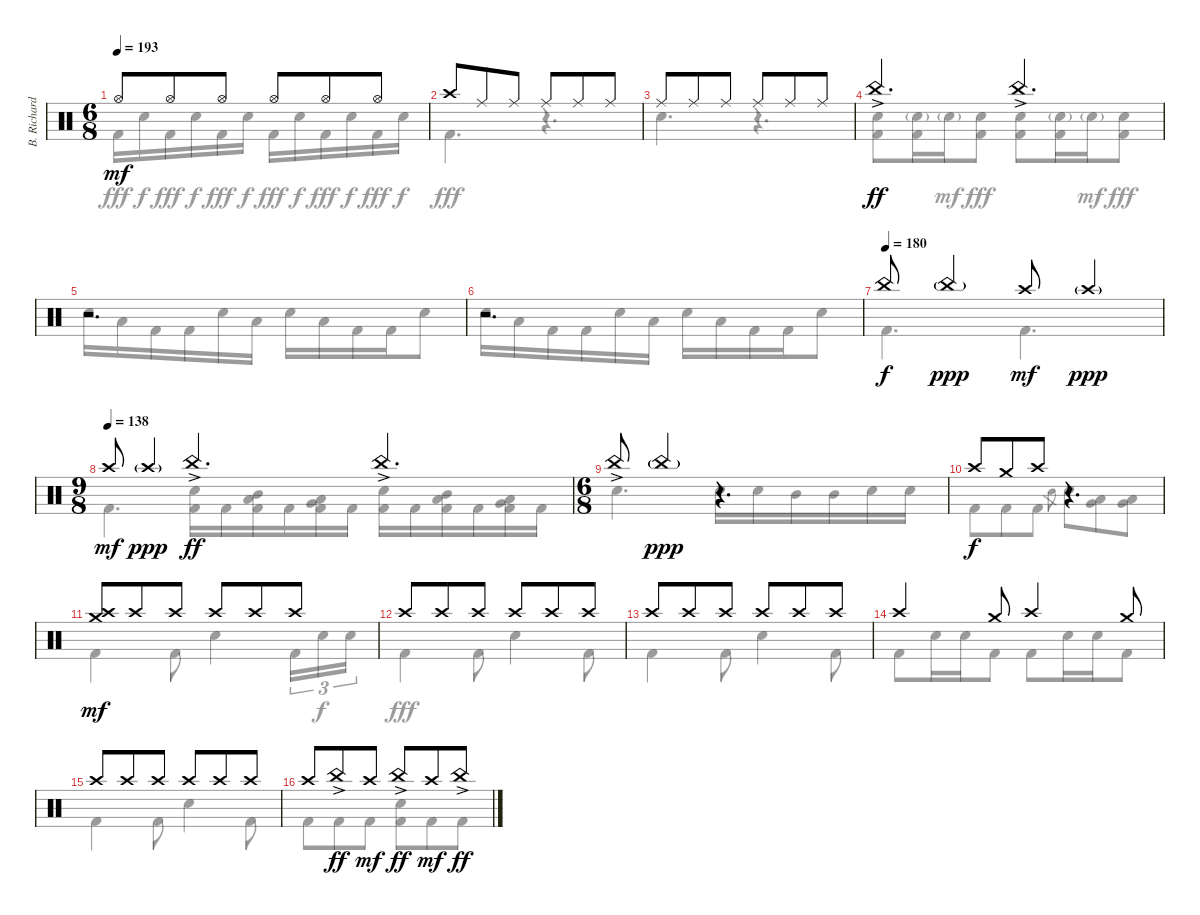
\track ("B. Richardson Drums" "B. Richard") {instrument percussion}
\staff {score}
\articulation defaults
\voice
\ts (6 8)
\tempo 193
\clef neutral
\ks c "Hi-Hat (open)".8{dy mf} "Hi-Hat (open)".8 "Hi-Hat (open)".8 "Hi-Hat (open)".8 "Hi-Hat (open)".8 "Hi-Hat (open)".8
|
"Crash high (hit)".8 "Ride (middle)".8 "Ride (middle)".8 "Ride (middle)".8 "Ride (middle)".8 "Ride (middle)".8 |
"Ride (middle)".8 "Ride (middle)".8 "Ride (middle)".8 "Ride (middle)".8 "Ride (middle)".8 "Ride (middle)".8 |
"China (hit)"{ac}.4{d dy ff} "China (hit)"{ac}.4{d} |
r.2{d} |
r.2{d} |
\tempo (180)
"China (hit)".8{dy f} "China (hit)"{g}.4{dy ppp} "Crash high (hit)".8{dy mf} "Crash high (hit)"{g}.4{dy ppp} |
\ts (9 8)
\tempo (138)
"Crash high (hit)".8{dy mf} "Crash high (hit)"{g}.4{dy ppp} "China (hit)"{ac}.4{d dy ff} "China (hit)"{ac}.4{d} |
\ts (6 8)
"China (hit)"{ac}.8 "China (hit)"{g}.4{dy ppp} r.4{d} |
"Crash high (hit)".8{dy f} "Crash medium (hit)".8 "Crash high (hit)".8 r.4{d} |
("Crash high (hit)" "Crash medium (hit)").8{dy mf} "Crash high (hit)".8 "Crash high (hit)".8 "Crash high (hit)".8 "Crash high (hit)".8 "Crash high (hit)".8 |
"Crash high (hit)".8 "Crash high (hit)".8 "Crash high (hit)".8 "Crash high (hit)".8 "Crash high (hit)".8 "Crash high (hit)".8 |
"Crash high (hit)".8 "Crash high (hit)".8 "Crash high (hit)".8 "Crash high (hit)".8 "Crash high (hit)".8 "Crash high (hit)".8 |
"Crash high (hit)".4 "Crash medium (hit)".8 "Crash high (hit)".4 "Crash medium (hit)".8 |
"Crash high (hit)".8 "Crash high (hit)".8 "Crash high (hit)".8 "Crash high (hit)".8 "Crash high (hit)".8 "Crash high (hit)".8 |
"Crash high (hit)".8 "China (hit)"{ac}.8{dy ff} "Crash high (hit)".8{dy mf} "China (hit)"{ac}.8{dy ff} "Crash high (hit)".8{dy mf} "China (hit)"{ac}.8{dy ff}
\voice
\clef neutral
\ottava regular
\simile none
\ks c "Kick (hit) 2".16{dy fff} "Electric Snare (hit)".16{dy f} "Kick (hit) 2".16{dy fff} "Electric Snare (hit)".16{dy f} "Kick (hit) 2".16{dy fff} "Electric Snare (hit)".16{dy f} "Kick (hit) 2".16{dy fff} "Electric Snare (hit)".16{dy f} "Kick (hit) 2".16{dy fff} "Electric Snare (hit)".16{dy f} "Kick (hit) 2".16{dy fff} "Electric Snare (hit)".16{dy f}
|
"Kick (hit) 2".4{d dy fff} r.4{d} |
"Electric Snare (hit)".4{d} r.4{d} |
("Electric Snare (hit)" "Kick (hit) 2").8 ("Electric Snare (hit)"{g} "Kick (hit) 2").16 "Electric Snare (hit)"{g}.16{dy mf} ("Electric Snare (hit)" "Kick (hit) 2").8{dy fff} ("Electric Snare (hit)" "Kick (hit) 2").8 ("Electric Snare (hit)"{g} "Kick (hit) 2").16 "Electric Snare (hit)"{g}.16{dy mf} ("Electric Snare (hit)" "Kick (hit) 2").8{dy fff} |
"Electric Snare (hit)".16 "Low Tom (hit)".16 "Kick (hit) 2".16 "Kick (hit) 2".16 "Electric Snare (hit)".16 "Low Tom (hit)".16 "Electric Snare (hit)".16 "Low Tom (hit)".16 "Kick (hit) 2".16 "Kick (hit) 2".16 "Electric Snare (hit)".8 |
"Electric Snare (hit)".16 "Low Tom (hit)".16 "Kick (hit) 2".16 "Kick (hit) 2".16 "Electric Snare (hit)".16 "Low Tom (hit)".16 "Electric Snare (hit)".16 "Low Tom (hit)".16 "Kick (hit) 2".16 "Kick (hit) 2".16 "Electric Snare (hit)".8 |
"Kick (hit) 2".4{d} "Kick (hit) 2".4{d} |
"Kick (hit) 2".4{d} ("Electric Snare (hit)" "Kick (hit) 2").16 "Kick (hit) 2".16 ("Mid Tom (hit)" "Low Tom (hit)" "Kick (hit) 2").16 "Kick (hit) 2".16 ("Low Tom (hit)" "Very Low Tom (hit)" "Kick (hit) 2").16 "Kick (hit) 2".16 ("Electric Snare (hit)" "Kick (hit) 2").16 "Kick (hit) 2".16 ("Mid Tom (hit)" "Low Tom (hit)" "Kick (hit) 2").16 "Kick (hit) 2".16 ("Low Tom (hit)" "Very Low Tom (hit)" "Kick (hit) 2").16 "Kick (hit) 2".16 |
"Electric Snare (hit)".4{d} "Electric Snare (hit)".16 "Electric Snare (hit)".16 "Mid Tom (hit)".16 "Mid Tom (hit)".16 "Electric Snare (hit)".16 "Electric Snare (hit)".16 |
"Kick (hit) 2".8 "Kick (hit) 2".8 "Kick (hit) 2".8 "Electric Snare (hit)".8{gr} "Electric Snare (hit)".8 ("Low Tom (hit)" "Very Low Tom (hit)").8 ("Low Tom (hit)" "Very Low Tom (hit)").8 |
"Kick (hit) 2".4 "Kick (hit) 2".8 "Electric Snare (hit)".4 "Kick (hit) 2".16{tu (3 2)} "Electric Snare (hit)".16{tu (3 2) dy f} "Electric Snare (hit)".16{tu (3 2)} |
"Kick (hit) 2".4{dy fff} "Kick (hit) 2".8 "Electric Snare (hit)".4 "Kick (hit) 2".8 |
"Kick (hit) 2".4 "Kick (hit) 2".8 "Electric Snare (hit)".4 "Kick (hit) 2".8 |
"Kick (hit) 2".8 "Electric Snare (hit)".16 "Electric Snare (hit)".16 "Kick (hit) 2".8 "Kick (hit) 2".8 "Electric Snare (hit)".16 "Electric Snare (hit)".16 "Kick (hit) 2".8 |
"Kick (hit) 2".4 "Kick (hit) 2".8 "Electric Snare (hit)".4 "Kick (hit) 2".8 |
"Kick (hit) 2".8 "Kick (hit) 2".8 "Kick (hit) 2".8 ("Electric Snare (hit)" "Kick (hit) 2").8 "Kick (hit) 2".8 "Kick (hit) 2".8
